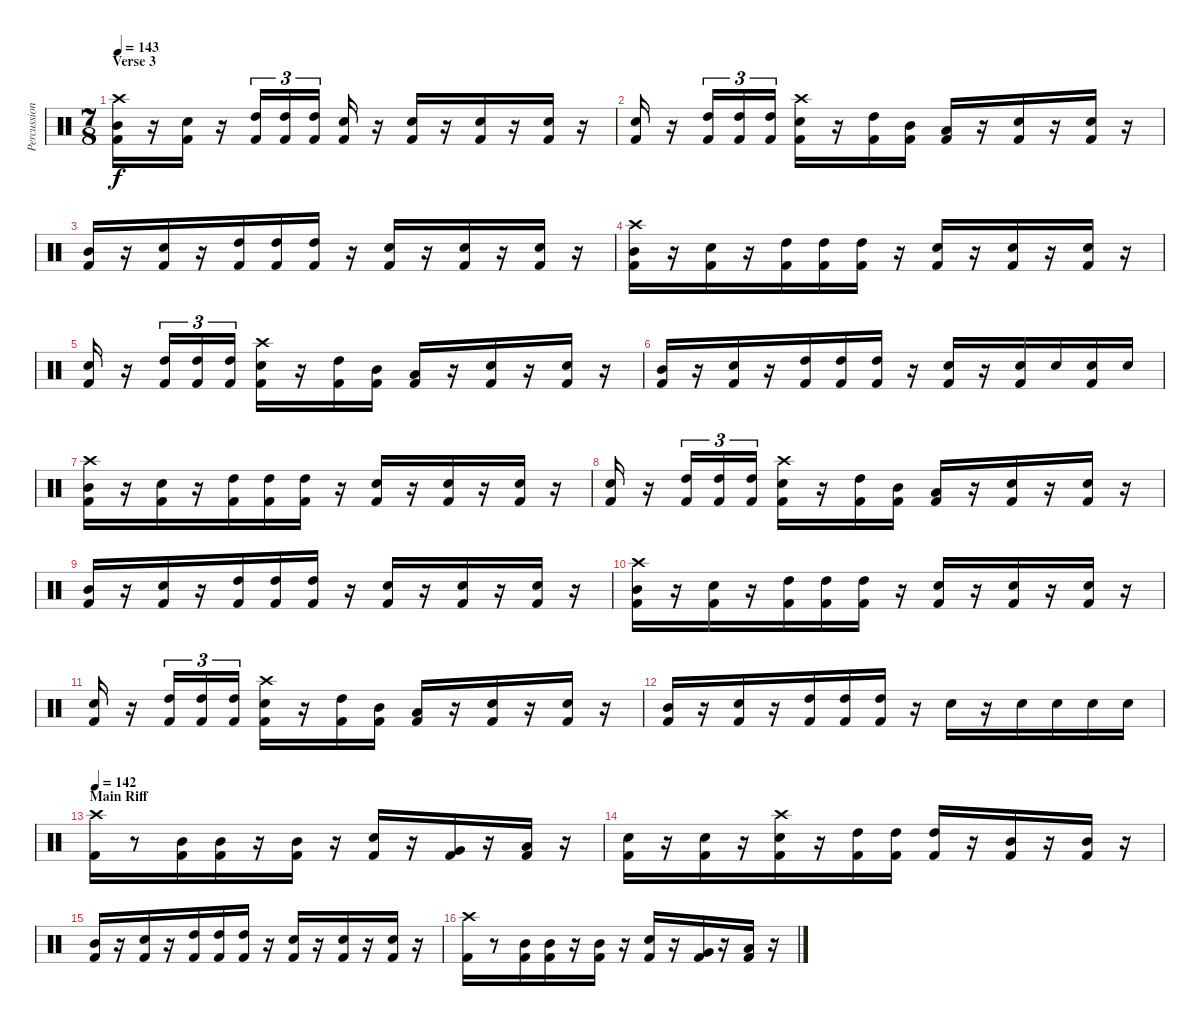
\track ("Percussion" "Percussion") {instrument percussion}
\staff {score}
\articulation defaults
\ts (7 8)
\section ("" "Verse 3")
\tempo 143
\clef neutral
\ks c
("Crash high (hit)" "Mid Tom (hit)" "Kick (hit) 2").16{dy f} r.16 ("Snare (hit) 2" "Kick (hit) 2").16 r.16 ("High Tom (hit)" "Kick (hit) 2").16{tu (3 2)} ("High Tom (hit)" "Kick (hit) 2").16{tu (3 2)} ("High Tom (hit)" "Kick (hit) 2").16{tu (3 2)} ("Snare (hit) 2" "Kick (hit) 2").16 r.16 ("Snare (hit) 2" "Kick (hit) 2").16 r.16 ("Snare (hit) 2" "Kick (hit) 2").16 r.16 ("Snare (hit) 2" "Kick (hit) 2").16 r.16 |
("Electric Snare (hit)" "Kick (hit) 2").16 r.16 ("High Tom (hit)" "Kick (hit) 2").16{tu (3 2)} ("High Tom (hit)" "Kick (hit) 2").16{tu (3 2)} ("High Tom (hit)" "Kick (hit) 2").16{tu (3 2)} ("Crash high (hit)" "Snare (hit) 2" "Kick (hit) 2").16 r.16 ("High Tom (hit)" "Kick (hit) 2").16 ("Mid Tom (hit)" "Kick (hit) 2").16 ("Low Tom (hit)" "Kick (hit) 2").16 r.16 ("Snare (hit) 2" "Kick (hit) 2").16 r.16 ("Snare (hit) 2" "Kick (hit) 2").16 r.16 |
("Mid Tom (hit)" "Kick (hit) 2").16 r.16 ("Snare (hit) 2" "Kick (hit) 2").16 r.16 ("High Tom (hit)" "Kick (hit) 2").16 ("High Tom (hit)" "Kick (hit) 2").16 ("High Tom (hit)" "Kick (hit) 2").16 r.16 ("Snare (hit) 2" "Kick (hit) 2").16 r.16 ("Snare (hit) 2" "Kick (hit) 2").16 r.16 ("Snare (hit) 2" "Kick (hit) 2").16 r.16 |
("Crash high (hit)" "Mid Tom (hit)" "Kick (hit) 2").16 r.16 ("Snare (hit) 2" "Kick (hit) 2").16 r.16 ("High Tom (hit)" "Kick (hit) 2").16 ("High Tom (hit)" "Kick (hit) 2").16 ("High Tom (hit)" "Kick (hit) 2").16 r.16 ("Snare (hit) 2" "Kick (hit) 2").16 r.16 ("Snare (hit) 2" "Kick (hit) 2").16 r.16 ("Snare (hit) 2" "Kick (hit) 2").16 r.16 |
("Electric Snare (hit)" "Kick (hit) 2").16 r.16 ("High Tom (hit)" "Kick (hit) 2").16{tu (3 2)} ("High Tom (hit)" "Kick (hit) 2").16{tu (3 2)} ("High Tom (hit)" "Kick (hit) 2").16{tu (3 2)} ("Crash high (hit)" "Snare (hit) 2" "Kick (hit) 2").16 r.16 ("High Tom (hit)" "Kick (hit) 2").16 ("Mid Tom (hit)" "Kick (hit) 2").16 ("Low Tom (hit)" "Kick (hit) 2").16 r.16 ("Snare (hit) 2" "Kick (hit) 2").16 r.16 ("Snare (hit) 2" "Kick (hit) 2").16 r.16 |
("Mid Tom (hit)" "Kick (hit) 2").16 r.16 ("Snare (hit) 2" "Kick (hit) 2").16 r.16 ("High Tom (hit)" "Kick (hit) 2").16 ("High Tom (hit)" "Kick (hit) 2").16 ("High Tom (hit)" "Kick (hit) 2").16 r.16 ("Snare (hit) 2" "Kick (hit) 2").16 r.16 ("Snare (hit) 2" "Kick (hit) 2").16 "Snare (hit) 2".16 ("Snare (hit) 2" "Kick (hit) 2").16 "Snare (hit) 2".16 |
("Crash high (hit)" "Mid Tom (hit)" "Kick (hit) 2").16 r.16 ("Snare (hit) 2" "Kick (hit) 2").16 r.16 ("High Tom (hit)" "Kick (hit) 2").16 ("High Tom (hit)" "Kick (hit) 2").16 ("High Tom (hit)" "Kick (hit) 2").16 r.16 ("Snare (hit) 2" "Kick (hit) 2").16 r.16 ("Snare (hit) 2" "Kick (hit) 2").16 r.16 ("Snare (hit) 2" "Kick (hit) 2").16 r.16 |
("Electric Snare (hit)" "Kick (hit) 2").16 r.16 ("High Tom (hit)" "Kick (hit) 2").16{tu (3 2)} ("High Tom (hit)" "Kick (hit) 2").16{tu (3 2)} ("High Tom (hit)" "Kick (hit) 2").16{tu (3 2)} ("Crash high (hit)" "Snare (hit) 2" "Kick (hit) 2").16 r.16 ("High Tom (hit)" "Kick (hit) 2").16 ("Mid Tom (hit)" "Kick (hit) 2").16 ("Low Tom (hit)" "Kick (hit) 2").16 r.16 ("Snare (hit) 2" "Kick (hit) 2").16 r.16 ("Snare (hit) 2" "Kick (hit) 2").16 r.16 |
("Mid Tom (hit)" "Kick (hit) 2").16 r.16 ("Snare (hit) 2" "Kick (hit) 2").16 r.16 ("High Tom (hit)" "Kick (hit) 2").16 ("High Tom (hit)" "Kick (hit) 2").16 ("High Tom (hit)" "Kick (hit) 2").16 r.16 ("Snare (hit) 2" "Kick (hit) 2").16 r.16 ("Snare (hit) 2" "Kick (hit) 2").16 r.16 ("Snare (hit) 2" "Kick (hit) 2").16 r.16 |
("Crash high (hit)" "Mid Tom (hit)" "Kick (hit) 2").16 r.16 ("Snare (hit) 2" "Kick (hit) 2").16 r.16 ("High Tom (hit)" "Kick (hit) 2").16 ("High Tom (hit)" "Kick (hit) 2").16 ("High Tom (hit)" "Kick (hit) 2").16 r.16 ("Snare (hit) 2" "Kick (hit) 2").16 r.16 ("Snare (hit) 2" "Kick (hit) 2").16 r.16 ("Snare (hit) 2" "Kick (hit) 2").16 r.16 |
("Electric Snare (hit)" "Kick (hit) 2").16 r.16 ("High Tom (hit)" "Kick (hit) 2").16{tu (3 2)} ("High Tom (hit)" "Kick (hit) 2").16{tu (3 2)} ("High Tom (hit)" "Kick (hit) 2").16{tu (3 2)} ("Crash high (hit)" "Snare (hit) 2" "Kick (hit) 2").16 r.16 ("High Tom (hit)" "Kick (hit) 2").16 ("Mid Tom (hit)" "Kick (hit) 2").16 ("Low Tom (hit)" "Kick (hit) 2").16 r.16 ("Snare (hit) 2" "Kick (hit) 2").16 r.16 ("Snare (hit) 2" "Kick (hit) 2").16 r.16 |
("Mid Tom (hit)" "Kick (hit) 2").16 r.16 ("Snare (hit) 2" "Kick (hit) 2").16 r.16 ("High Tom (hit)" "Kick (hit) 2").16 ("High Tom (hit)" "Kick (hit) 2").16 ("High Tom (hit)" "Kick (hit) 2").16 r.16 "Snare (hit) 2".16 r.16 "Snare (hit) 2".16 "Snare (hit) 2".16 "Snare (hit) 2".16 "Snare (hit) 2".16 |
\section ("" "Main Riff")
\tempo 142
("Crash high (hit)" "Kick (hit) 2").16 r.8 ("Mid Tom (hit)" "Kick (hit) 2").16 ("Mid Tom (hit)" "Kick (hit) 2").16 r.16 ("Mid Tom (hit)" "Kick (hit) 2").16 r.16 ("Snare (hit) 2" "Kick (hit) 2").16 r.16 ("Very Low Tom (hit)" "Kick (hit) 2").16 r.16 ("Low Tom (hit)" "Kick (hit) 2").16 r.16 |
("Snare (hit) 2" "Kick (hit) 2").16 r.16 ("Snare (hit) 2" "Kick (hit) 2").16 r.16 ("Crash high (hit)" "Snare (hit) 2" "Kick (hit) 2").16 r.16 ("High Tom (hit)" "Kick (hit) 2").16 ("High Tom (hit)" "Kick (hit) 2").16 ("High Tom (hit)" "Kick (hit) 2").16 r.16 ("Mid Tom (hit)" "Kick (hit) 2").16 r.16 ("Mid Tom (hit)" "Kick (hit) 2").16 r.16 |
("Mid Tom (hit)" "Kick (hit) 2").16 r.16 ("Snare (hit) 2" "Kick (hit) 2").16 r.16 ("High Tom (hit)" "Kick (hit) 2").16 ("High Tom (hit)" "Kick (hit) 2").16 ("High Tom (hit)" "Kick (hit) 2").16 r.16 ("Snare (hit) 2" "Kick (hit) 2").16 r.16 ("Snare (hit) 2" "Kick (hit) 2").16 r.16 ("Snare (hit) 2" "Kick (hit) 2").16 r.16 |
("Crash high (hit)" "Kick (hit) 2").16 r.8 ("Mid Tom (hit)" "Kick (hit) 2").16 ("Mid Tom (hit)" "Kick (hit) 2").16 r.16 ("Mid Tom (hit)" "Kick (hit) 2").16 r.16 ("Snare (hit) 2" "Kick (hit) 2").16 r.16 ("Very Low Tom (hit)" "Kick (hit) 2").16 r.16 ("Low Tom (hit)" "Kick (hit) 2").16 r.16
